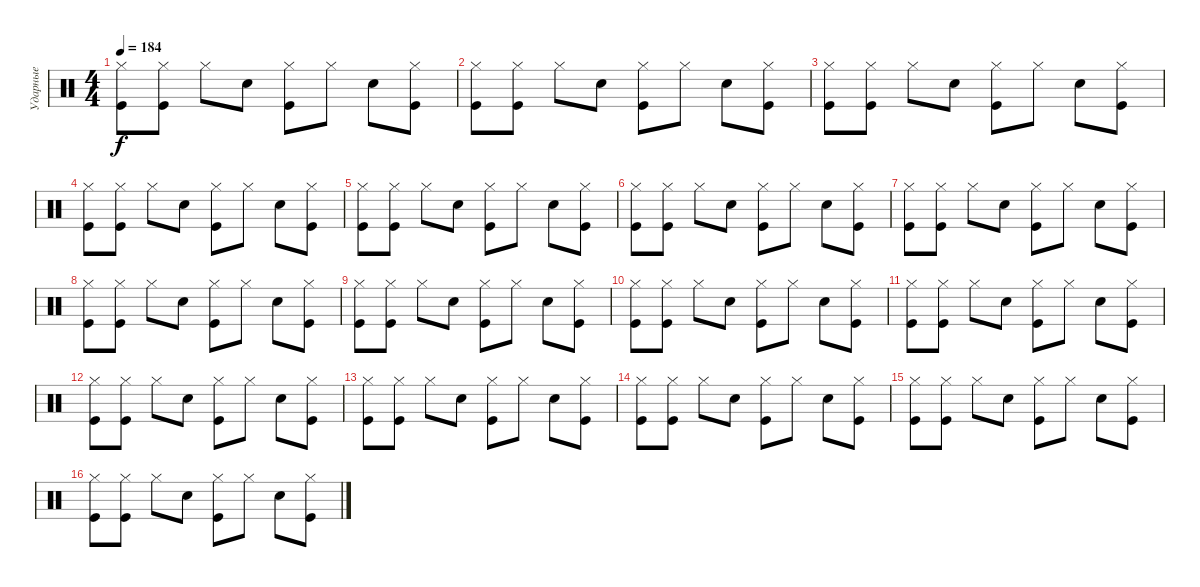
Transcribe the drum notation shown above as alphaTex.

\track ("Ударные" "Ударные") {instrument percussion}
\staff {score}
\articulation defaults
\ts (4 4)
\tempo 184
\clef neutral
\ks c
("Hi-Hat (closed)" "Kick (hit)").8{dy f} ("Hi-Hat (closed)" "Kick (hit)").8 "Hi-Hat (closed)".8 "Electric Snare (hit)".8 ("Hi-Hat (closed)" "Kick (hit)").8 "Hi-Hat (closed)".8 "Electric Snare (hit)".8 ("Hi-Hat (closed)" "Kick (hit)").8 |
("Hi-Hat (closed)" "Kick (hit)").8 ("Hi-Hat (closed)" "Kick (hit)").8 "Hi-Hat (closed)".8 "Electric Snare (hit)".8 ("Hi-Hat (closed)" "Kick (hit)").8 "Hi-Hat (closed)".8 "Electric Snare (hit)".8 ("Hi-Hat (closed)" "Kick (hit)").8 |
("Hi-Hat (closed)" "Kick (hit)").8 ("Hi-Hat (closed)" "Kick (hit)").8 "Hi-Hat (closed)".8 "Electric Snare (hit)".8 ("Hi-Hat (closed)" "Kick (hit)").8 "Hi-Hat (closed)".8 "Electric Snare (hit)".8 ("Hi-Hat (closed)" "Kick (hit)").8 |
("Hi-Hat (closed)" "Kick (hit)").8 ("Hi-Hat (closed)" "Kick (hit)").8 "Hi-Hat (closed)".8 "Electric Snare (hit)".8 ("Hi-Hat (closed)" "Kick (hit)").8 "Hi-Hat (closed)".8 "Electric Snare (hit)".8 ("Hi-Hat (closed)" "Kick (hit)").8 |
("Hi-Hat (closed)" "Kick (hit)").8 ("Hi-Hat (closed)" "Kick (hit)").8 "Hi-Hat (closed)".8 "Electric Snare (hit)".8 ("Hi-Hat (closed)" "Kick (hit)").8 "Hi-Hat (closed)".8 "Electric Snare (hit)".8 ("Hi-Hat (closed)" "Kick (hit)").8 |
("Hi-Hat (closed)" "Kick (hit)").8 ("Hi-Hat (closed)" "Kick (hit)").8 "Hi-Hat (closed)".8 "Electric Snare (hit)".8 ("Hi-Hat (closed)" "Kick (hit)").8 "Hi-Hat (closed)".8 "Electric Snare (hit)".8 ("Hi-Hat (closed)" "Kick (hit)").8 |
("Hi-Hat (closed)" "Kick (hit)").8 ("Hi-Hat (closed)" "Kick (hit)").8 "Hi-Hat (closed)".8 "Electric Snare (hit)".8 ("Hi-Hat (closed)" "Kick (hit)").8 "Hi-Hat (closed)".8 "Electric Snare (hit)".8 ("Hi-Hat (closed)" "Kick (hit)").8 |
("Hi-Hat (closed)" "Kick (hit)").8 ("Hi-Hat (closed)" "Kick (hit)").8 "Hi-Hat (closed)".8 "Electric Snare (hit)".8 ("Hi-Hat (closed)" "Kick (hit)").8 "Hi-Hat (closed)".8 "Electric Snare (hit)".8 ("Hi-Hat (closed)" "Kick (hit)").8 |
("Hi-Hat (closed)" "Kick (hit)").8 ("Hi-Hat (closed)" "Kick (hit)").8 "Hi-Hat (closed)".8 "Electric Snare (hit)".8 ("Hi-Hat (closed)" "Kick (hit)").8 "Hi-Hat (closed)".8 "Electric Snare (hit)".8 ("Hi-Hat (closed)" "Kick (hit)").8 |
("Hi-Hat (closed)" "Kick (hit)").8 ("Hi-Hat (closed)" "Kick (hit)").8 "Hi-Hat (closed)".8 "Electric Snare (hit)".8 ("Hi-Hat (closed)" "Kick (hit)").8 "Hi-Hat (closed)".8 "Electric Snare (hit)".8 ("Hi-Hat (closed)" "Kick (hit)").8 |
("Hi-Hat (closed)" "Kick (hit)").8 ("Hi-Hat (closed)" "Kick (hit)").8 "Hi-Hat (closed)".8 "Electric Snare (hit)".8 ("Hi-Hat (closed)" "Kick (hit)").8 "Hi-Hat (closed)".8 "Electric Snare (hit)".8 ("Hi-Hat (closed)" "Kick (hit)").8 |
("Hi-Hat (closed)" "Kick (hit)").8 ("Hi-Hat (closed)" "Kick (hit)").8 "Hi-Hat (closed)".8 "Electric Snare (hit)".8 ("Hi-Hat (closed)" "Kick (hit)").8 "Hi-Hat (closed)".8 "Electric Snare (hit)".8 ("Hi-Hat (closed)" "Kick (hit)").8 |
("Hi-Hat (closed)" "Kick (hit)").8 ("Hi-Hat (closed)" "Kick (hit)").8 "Hi-Hat (closed)".8 "Electric Snare (hit)".8 ("Hi-Hat (closed)" "Kick (hit)").8 "Hi-Hat (closed)".8 "Electric Snare (hit)".8 ("Hi-Hat (closed)" "Kick (hit)").8 |
("Hi-Hat (closed)" "Kick (hit)").8 ("Hi-Hat (closed)" "Kick (hit)").8 "Hi-Hat (closed)".8 "Electric Snare (hit)".8 ("Hi-Hat (closed)" "Kick (hit)").8 "Hi-Hat (closed)".8 "Electric Snare (hit)".8 ("Hi-Hat (closed)" "Kick (hit)").8 |
("Hi-Hat (closed)" "Kick (hit)").8 ("Hi-Hat (closed)" "Kick (hit)").8 "Hi-Hat (closed)".8 "Electric Snare (hit)".8 ("Hi-Hat (closed)" "Kick (hit)").8 "Hi-Hat (closed)".8 "Electric Snare (hit)".8 ("Hi-Hat (closed)" "Kick (hit)").8 |
("Hi-Hat (closed)" "Kick (hit)").8 ("Hi-Hat (closed)" "Kick (hit)").8 "Hi-Hat (closed)".8 "Electric Snare (hit)".8 ("Hi-Hat (closed)" "Kick (hit)").8 "Hi-Hat (closed)".8 "Electric Snare (hit)".8 ("Hi-Hat (closed)" "Kick (hit)").8
